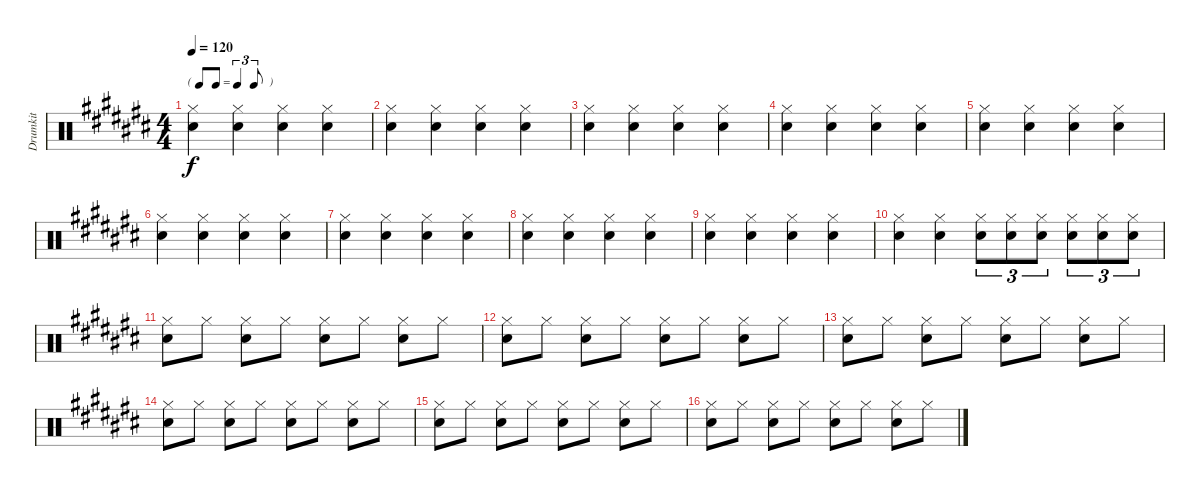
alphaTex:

\track ("Drumkit" "Drumkit") {instrument percussion}
\staff {score}
\articulation defaults
\ts (4 4)
\tf triplet8th
\tempo 120
\clef neutral
\ks c#
("Snare (hit) 2" "Hi-Hat (closed)").4{dy f} ("Snare (hit) 2" "Hi-Hat (closed)").4 ("Snare (hit) 2" "Hi-Hat (closed)").4 ("Snare (hit) 2" "Hi-Hat (closed)").4 |
("Snare (hit) 2" "Hi-Hat (closed)").4 ("Snare (hit) 2" "Hi-Hat (closed)").4 ("Snare (hit) 2" "Hi-Hat (closed)").4 ("Snare (hit) 2" "Hi-Hat (closed)").4 |
("Snare (hit) 2" "Hi-Hat (closed)").4 ("Snare (hit) 2" "Hi-Hat (closed)").4 ("Snare (hit) 2" "Hi-Hat (closed)").4 ("Snare (hit) 2" "Hi-Hat (closed)").4 |
("Snare (hit) 2" "Hi-Hat (closed)").4 ("Snare (hit) 2" "Hi-Hat (closed)").4 ("Snare (hit) 2" "Hi-Hat (closed)").4 ("Snare (hit) 2" "Hi-Hat (closed)").4 |
("Snare (hit) 2" "Hi-Hat (closed)").4 ("Snare (hit) 2" "Hi-Hat (closed)").4 ("Snare (hit) 2" "Hi-Hat (closed)").4 ("Snare (hit) 2" "Hi-Hat (closed)").4 |
("Snare (hit) 2" "Hi-Hat (closed)").4 ("Snare (hit) 2" "Hi-Hat (closed)").4 ("Snare (hit) 2" "Hi-Hat (closed)").4 ("Snare (hit) 2" "Hi-Hat (closed)").4 |
("Snare (hit) 2" "Hi-Hat (closed)").4 ("Snare (hit) 2" "Hi-Hat (closed)").4 ("Snare (hit) 2" "Hi-Hat (closed)").4 ("Snare (hit) 2" "Hi-Hat (closed)").4 |
("Snare (hit) 2" "Hi-Hat (closed)").4 ("Snare (hit) 2" "Hi-Hat (closed)").4 ("Snare (hit) 2" "Hi-Hat (closed)").4 ("Snare (hit) 2" "Hi-Hat (closed)").4 |
("Snare (hit) 2" "Hi-Hat (closed)").4 ("Snare (hit) 2" "Hi-Hat (closed)").4 ("Snare (hit) 2" "Hi-Hat (closed)").4 ("Snare (hit) 2" "Hi-Hat (closed)").4 |
("Snare (hit) 2" "Hi-Hat (closed)").4 ("Snare (hit) 2" "Hi-Hat (closed)").4 ("Snare (hit) 2" "Hi-Hat (closed)").8{tu (3 2)} ("Snare (hit) 2" "Hi-Hat (closed)").8{tu (3 2)} ("Snare (hit) 2" "Hi-Hat (closed)").8{tu (3 2)} ("Snare (hit) 2" "Hi-Hat (closed)").8{tu (3 2)} ("Snare (hit) 2" "Hi-Hat (closed)").8{tu (3 2)} ("Snare (hit) 2" "Hi-Hat (closed)").8{tu (3 2)} |
("Snare (hit) 2" "Hi-Hat (closed)").8 "Hi-Hat (closed)".8 ("Snare (hit) 2" "Hi-Hat (closed)").8 "Hi-Hat (closed)".8 ("Snare (hit) 2" "Hi-Hat (closed)").8 "Hi-Hat (closed)".8 ("Snare (hit) 2" "Hi-Hat (closed)").8 "Hi-Hat (closed)".8 |
("Snare (hit) 2" "Hi-Hat (closed)").8 "Hi-Hat (closed)".8 ("Snare (hit) 2" "Hi-Hat (closed)").8 "Hi-Hat (closed)".8 ("Snare (hit) 2" "Hi-Hat (closed)").8 "Hi-Hat (closed)".8 ("Snare (hit) 2" "Hi-Hat (closed)").8 "Hi-Hat (closed)".8 |
("Snare (hit) 2" "Hi-Hat (closed)").8 "Hi-Hat (closed)".8 ("Snare (hit) 2" "Hi-Hat (closed)").8 "Hi-Hat (closed)".8 ("Snare (hit) 2" "Hi-Hat (closed)").8 "Hi-Hat (closed)".8 ("Snare (hit) 2" "Hi-Hat (closed)").8 "Hi-Hat (closed)".8 |
("Snare (hit) 2" "Hi-Hat (closed)").8 "Hi-Hat (closed)".8 ("Snare (hit) 2" "Hi-Hat (closed)").8 "Hi-Hat (closed)".8 ("Snare (hit) 2" "Hi-Hat (closed)").8 "Hi-Hat (closed)".8 ("Snare (hit) 2" "Hi-Hat (closed)").8 "Hi-Hat (closed)".8 |
("Snare (hit) 2" "Hi-Hat (closed)").8 "Hi-Hat (closed)".8 ("Snare (hit) 2" "Hi-Hat (closed)").8 "Hi-Hat (closed)".8 ("Snare (hit) 2" "Hi-Hat (closed)").8 "Hi-Hat (closed)".8 ("Snare (hit) 2" "Hi-Hat (closed)").8 "Hi-Hat (closed)".8 |
("Snare (hit) 2" "Hi-Hat (closed)").8 "Hi-Hat (closed)".8 ("Snare (hit) 2" "Hi-Hat (closed)").8 "Hi-Hat (closed)".8 ("Snare (hit) 2" "Hi-Hat (closed)").8 "Hi-Hat (closed)".8 ("Snare (hit) 2" "Hi-Hat (closed)").8 "Hi-Hat (closed)".8
